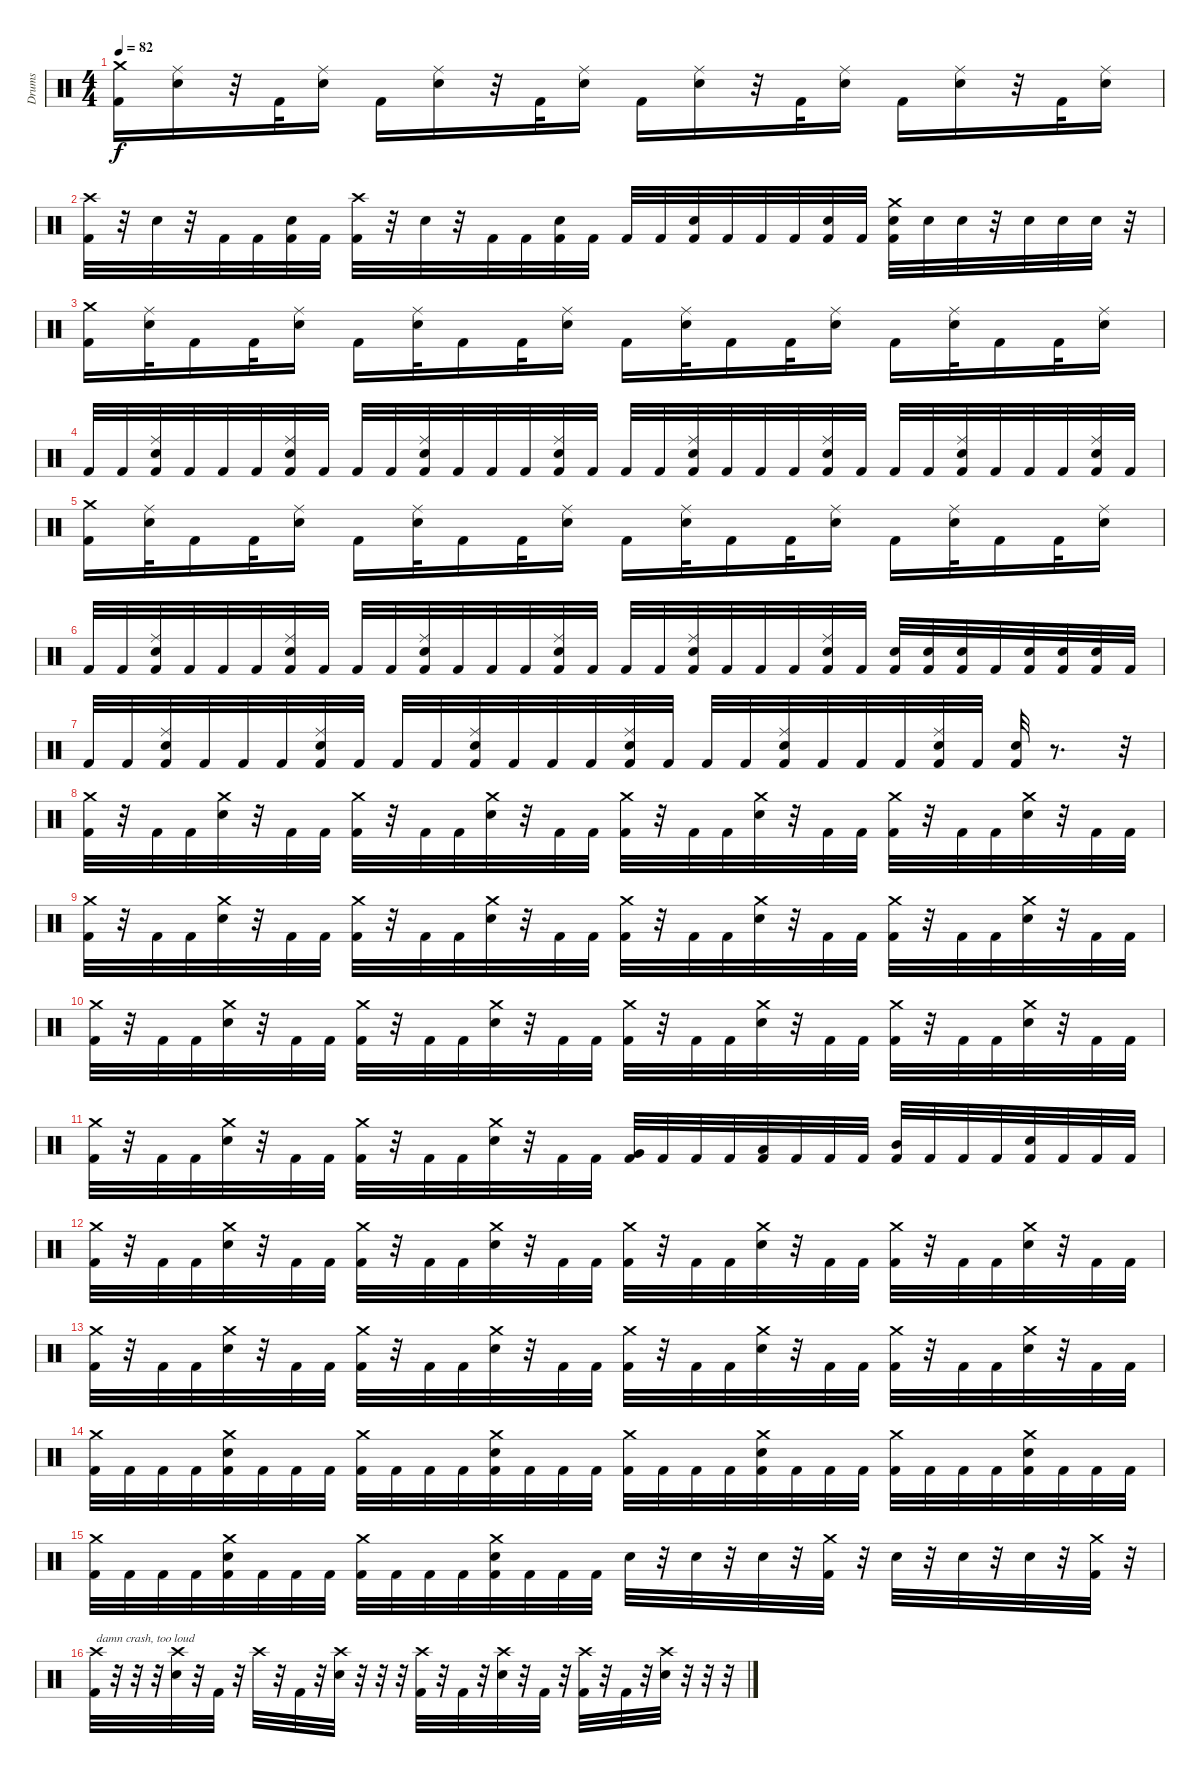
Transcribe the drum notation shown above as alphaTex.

\track ("Drums" "Drums") {instrument percussion}
\staff {score}
\articulation defaults
\ts (4 4)
\tempo 82
\clef neutral
\ks c
("Crash medium (hit)" "Kick (hit) 2").16{dy f} ("Ride (middle)" "Electric Snare (hit)").16 r.32 "Kick (hit) 2".32 ("Ride (middle)" "Electric Snare (hit)").16 "Kick (hit) 2".16 ("Ride (middle)" "Electric Snare (hit)").16 r.32 "Kick (hit) 2".32 ("Ride (middle)" "Electric Snare (hit)").16 "Kick (hit) 2".16 ("Ride (middle)" "Electric Snare (hit)").16 r.32 "Kick (hit) 2".32 ("Ride (middle)" "Electric Snare (hit)").16 "Kick (hit) 2".16 ("Ride (middle)" "Electric Snare (hit)").16 r.32 "Kick (hit) 2".32 ("Ride (middle)" "Electric Snare (hit)").16 |
("Crash high (hit)" "Kick (hit) 2").32 r.32 "Electric Snare (hit)".32 r.32 "Kick (hit) 2".32 "Kick (hit) 2".32 ("Electric Snare (hit)" "Kick (hit) 2").32 "Kick (hit) 2".32 ("Crash high (hit)" "Kick (hit) 2").32 r.32 "Electric Snare (hit)".32 r.32 "Kick (hit) 2".32 "Kick (hit) 2".32 ("Electric Snare (hit)" "Kick (hit) 2").32 "Kick (hit) 2".32 "Kick (hit) 2".32 "Kick (hit) 2".32 ("Electric Snare (hit)" "Kick (hit) 2").32 "Kick (hit) 2".32 "Kick (hit) 2".32 "Kick (hit) 2".32 ("Electric Snare (hit)" "Kick (hit) 2").32 "Kick (hit) 2".32 ("Crash medium (hit)" "Electric Snare (hit)" "Kick (hit) 2").32 "Electric Snare (hit)".32 "Electric Snare (hit)".32 r.32 "Electric Snare (hit)".32 "Electric Snare (hit)".32 "Electric Snare (hit)".32 r.32 |
("Crash medium (hit)" "Kick (hit) 2").16 ("Ride (middle)" "Electric Snare (hit)").32 "Kick (hit) 2".16 "Kick (hit) 2".32 ("Ride (middle)" "Electric Snare (hit)").16 "Kick (hit) 2".16 ("Ride (middle)" "Electric Snare (hit)").32 "Kick (hit) 2".16 "Kick (hit) 2".32 ("Ride (middle)" "Electric Snare (hit)").16 "Kick (hit) 2".16 ("Ride (middle)" "Electric Snare (hit)").32 "Kick (hit) 2".16 "Kick (hit) 2".32 ("Ride (middle)" "Electric Snare (hit)").16 "Kick (hit) 2".16 ("Ride (middle)" "Electric Snare (hit)").32 "Kick (hit) 2".16 "Kick (hit) 2".32 ("Ride (middle)" "Electric Snare (hit)").16 |
"Kick (hit) 2".32 "Kick (hit) 2".32 ("Ride (middle)" "Electric Snare (hit)" "Kick (hit) 2").32 "Kick (hit) 2".32 "Kick (hit) 2".32 "Kick (hit) 2".32 ("Ride (middle)" "Electric Snare (hit)" "Kick (hit) 2").32 "Kick (hit) 2".32 "Kick (hit) 2".32 "Kick (hit) 2".32 ("Ride (middle)" "Electric Snare (hit)" "Kick (hit) 2").32 "Kick (hit) 2".32 "Kick (hit) 2".32 "Kick (hit) 2".32 ("Ride (middle)" "Electric Snare (hit)" "Kick (hit) 2").32 "Kick (hit) 2".32 "Kick (hit) 2".32 "Kick (hit) 2".32 ("Ride (middle)" "Electric Snare (hit)" "Kick (hit) 2").32 "Kick (hit) 2".32 "Kick (hit) 2".32 "Kick (hit) 2".32 ("Ride (middle)" "Electric Snare (hit)" "Kick (hit) 2").32 "Kick (hit) 2".32 "Kick (hit) 2".32 "Kick (hit) 2".32 ("Ride (middle)" "Electric Snare (hit)" "Kick (hit) 2").32 "Kick (hit) 2".32 "Kick (hit) 2".32 "Kick (hit) 2".32 ("Ride (middle)" "Electric Snare (hit)" "Kick (hit) 2").32 "Kick (hit) 2".32 |
("Crash medium (hit)" "Kick (hit) 2").16 ("Ride (middle)" "Electric Snare (hit)").32 "Kick (hit) 2".16 "Kick (hit) 2".32 ("Ride (middle)" "Electric Snare (hit)").16 "Kick (hit) 2".16 ("Ride (middle)" "Electric Snare (hit)").32 "Kick (hit) 2".16 "Kick (hit) 2".32 ("Ride (middle)" "Electric Snare (hit)").16 "Kick (hit) 2".16 ("Ride (middle)" "Electric Snare (hit)").32 "Kick (hit) 2".16 "Kick (hit) 2".32 ("Ride (middle)" "Electric Snare (hit)").16 "Kick (hit) 2".16 ("Ride (middle)" "Electric Snare (hit)").32 "Kick (hit) 2".16 "Kick (hit) 2".32 ("Ride (middle)" "Electric Snare (hit)").16 |
"Kick (hit) 2".32 "Kick (hit) 2".32 ("Ride (middle)" "Electric Snare (hit)" "Kick (hit) 2").32 "Kick (hit) 2".32 "Kick (hit) 2".32 "Kick (hit) 2".32 ("Ride (middle)" "Electric Snare (hit)" "Kick (hit) 2").32 "Kick (hit) 2".32 "Kick (hit) 2".32 "Kick (hit) 2".32 ("Ride (middle)" "Electric Snare (hit)" "Kick (hit) 2").32 "Kick (hit) 2".32 "Kick (hit) 2".32 "Kick (hit) 2".32 ("Ride (middle)" "Electric Snare (hit)" "Kick (hit) 2").32 "Kick (hit) 2".32 "Kick (hit) 2".32 "Kick (hit) 2".32 ("Ride (middle)" "Electric Snare (hit)" "Kick (hit) 2").32 "Kick (hit) 2".32 "Kick (hit) 2".32 "Kick (hit) 2".32 ("Ride (middle)" "Electric Snare (hit)" "Kick (hit) 2").32 "Kick (hit) 2".32 ("Electric Snare (hit)" "Kick (hit) 2").32 ("Electric Snare (hit)" "Kick (hit) 2").32 ("Electric Snare (hit)" "Kick (hit) 2").32 "Kick (hit) 2".32 ("Electric Snare (hit)" "Kick (hit) 2").32 ("Electric Snare (hit)" "Kick (hit) 2").32 ("Electric Snare (hit)" "Kick (hit) 2").32 "Kick (hit) 2".32 |
"Kick (hit) 2".32 "Kick (hit) 2".32 ("Ride (middle)" "Electric Snare (hit)" "Kick (hit) 2").32 "Kick (hit) 2".32 "Kick (hit) 2".32 "Kick (hit) 2".32 ("Ride (middle)" "Electric Snare (hit)" "Kick (hit) 2").32 "Kick (hit) 2".32 "Kick (hit) 2".32 "Kick (hit) 2".32 ("Ride (middle)" "Electric Snare (hit)" "Kick (hit) 2").32 "Kick (hit) 2".32 "Kick (hit) 2".32 "Kick (hit) 2".32 ("Ride (middle)" "Electric Snare (hit)" "Kick (hit) 2").32 "Kick (hit) 2".32 "Kick (hit) 2".32 "Kick (hit) 2".32 ("Ride (middle)" "Electric Snare (hit)" "Kick (hit) 2").32 "Kick (hit) 2".32 "Kick (hit) 2".32 "Kick (hit) 2".32 ("Ride (middle)" "Electric Snare (hit)" "Kick (hit) 2").32 "Kick (hit) 2".32 ("Electric Snare (hit)" "Kick (hit) 2").32 r.8{d} r.32 |
("Crash medium (hit)" "Kick (hit) 2").32 r.32 "Kick (hit) 2".32 "Kick (hit) 2".32 ("Crash medium (hit)" "Electric Snare (hit)").32 r.32 "Kick (hit) 2".32 "Kick (hit) 2".32 ("Crash medium (hit)" "Kick (hit) 2").32 r.32 "Kick (hit) 2".32 "Kick (hit) 2".32 ("Crash medium (hit)" "Electric Snare (hit)").32 r.32 "Kick (hit) 2".32 "Kick (hit) 2".32 ("Crash medium (hit)" "Kick (hit) 2").32 r.32 "Kick (hit) 2".32 "Kick (hit) 2".32 ("Crash medium (hit)" "Electric Snare (hit)").32 r.32 "Kick (hit) 2".32 "Kick (hit) 2".32 ("Crash medium (hit)" "Kick (hit) 2").32 r.32 "Kick (hit) 2".32 "Kick (hit) 2".32 ("Crash medium (hit)" "Electric Snare (hit)").32 r.32 "Kick (hit) 2".32 "Kick (hit) 2".32 |
("Crash medium (hit)" "Kick (hit) 2").32 r.32 "Kick (hit) 2".32 "Kick (hit) 2".32 ("Crash medium (hit)" "Electric Snare (hit)").32 r.32 "Kick (hit) 2".32 "Kick (hit) 2".32 ("Crash medium (hit)" "Kick (hit) 2").32 r.32 "Kick (hit) 2".32 "Kick (hit) 2".32 ("Crash medium (hit)" "Electric Snare (hit)").32 r.32 "Kick (hit) 2".32 "Kick (hit) 2".32 ("Crash medium (hit)" "Kick (hit) 2").32 r.32 "Kick (hit) 2".32 "Kick (hit) 2".32 ("Crash medium (hit)" "Electric Snare (hit)").32 r.32 "Kick (hit) 2".32 "Kick (hit) 2".32 ("Crash medium (hit)" "Kick (hit) 2").32 r.32 "Kick (hit) 2".32 "Kick (hit) 2".32 ("Crash medium (hit)" "Electric Snare (hit)").32 r.32 "Kick (hit) 2".32 "Kick (hit) 2".32 |
("Crash medium (hit)" "Kick (hit) 2").32 r.32 "Kick (hit) 2".32 "Kick (hit) 2".32 ("Crash medium (hit)" "Electric Snare (hit)").32 r.32 "Kick (hit) 2".32 "Kick (hit) 2".32 ("Crash medium (hit)" "Kick (hit) 2").32 r.32 "Kick (hit) 2".32 "Kick (hit) 2".32 ("Crash medium (hit)" "Electric Snare (hit)").32 r.32 "Kick (hit) 2".32 "Kick (hit) 2".32 ("Crash medium (hit)" "Kick (hit) 2").32 r.32 "Kick (hit) 2".32 "Kick (hit) 2".32 ("Crash medium (hit)" "Electric Snare (hit)").32 r.32 "Kick (hit) 2".32 "Kick (hit) 2".32 ("Crash medium (hit)" "Kick (hit) 2").32 r.32 "Kick (hit) 2".32 "Kick (hit) 2".32 ("Crash medium (hit)" "Electric Snare (hit)").32 r.32 "Kick (hit) 2".32 "Kick (hit) 2".32 |
("Crash medium (hit)" "Kick (hit) 2").32 r.32 "Kick (hit) 2".32 "Kick (hit) 2".32 ("Crash medium (hit)" "Electric Snare (hit)").32 r.32 "Kick (hit) 2".32 "Kick (hit) 2".32 ("Crash medium (hit)" "Kick (hit) 2").32 r.32 "Kick (hit) 2".32 "Kick (hit) 2".32 ("Crash medium (hit)" "Electric Snare (hit)").32 r.32 "Kick (hit) 2".32 "Kick (hit) 2".32 ("Very Low Tom (hit)" "Kick (hit) 2").32 "Kick (hit) 2".32 "Kick (hit) 2".32 "Kick (hit) 2".32 ("Low Tom (hit)" "Kick (hit) 2").32 "Kick (hit) 2".32 "Kick (hit) 2".32 "Kick (hit) 2".32 ("Mid Tom (hit)" "Kick (hit) 2").32 "Kick (hit) 2".32 "Kick (hit) 2".32 "Kick (hit) 2".32 ("Electric Snare (hit)" "Kick (hit) 2").32 "Kick (hit) 2".32 "Kick (hit) 2".32 "Kick (hit) 2".32 |
("Crash medium (hit)" "Kick (hit) 2").32 r.32 "Kick (hit) 2".32 "Kick (hit) 2".32 ("Crash medium (hit)" "Electric Snare (hit)").32 r.32 "Kick (hit) 2".32 "Kick (hit) 2".32 ("Crash medium (hit)" "Kick (hit) 2").32 r.32 "Kick (hit) 2".32 "Kick (hit) 2".32 ("Crash medium (hit)" "Electric Snare (hit)").32 r.32 "Kick (hit) 2".32 "Kick (hit) 2".32 ("Crash medium (hit)" "Kick (hit) 2").32 r.32 "Kick (hit) 2".32 "Kick (hit) 2".32 ("Crash medium (hit)" "Electric Snare (hit)").32 r.32 "Kick (hit) 2".32 "Kick (hit) 2".32 ("Crash medium (hit)" "Kick (hit) 2").32 r.32 "Kick (hit) 2".32 "Kick (hit) 2".32 ("Crash medium (hit)" "Electric Snare (hit)").32 r.32 "Kick (hit) 2".32 "Kick (hit) 2".32 |
("Crash medium (hit)" "Kick (hit) 2").32 r.32 "Kick (hit) 2".32 "Kick (hit) 2".32 ("Crash medium (hit)" "Electric Snare (hit)").32 r.32 "Kick (hit) 2".32 "Kick (hit) 2".32 ("Crash medium (hit)" "Kick (hit) 2").32 r.32 "Kick (hit) 2".32 "Kick (hit) 2".32 ("Crash medium (hit)" "Electric Snare (hit)").32 r.32 "Kick (hit) 2".32 "Kick (hit) 2".32 ("Crash medium (hit)" "Kick (hit) 2").32 r.32 "Kick (hit) 2".32 "Kick (hit) 2".32 ("Crash medium (hit)" "Electric Snare (hit)").32 r.32 "Kick (hit) 2".32 "Kick (hit) 2".32 ("Crash medium (hit)" "Kick (hit) 2").32 r.32 "Kick (hit) 2".32 "Kick (hit) 2".32 ("Crash medium (hit)" "Electric Snare (hit)").32 r.32 "Kick (hit) 2".32 "Kick (hit) 2".32 |
("Crash medium (hit)" "Kick (hit) 2").32 "Kick (hit) 2".32 "Kick (hit) 2".32 "Kick (hit) 2".32 ("Crash medium (hit)" "Electric Snare (hit)" "Kick (hit) 2").32 "Kick (hit) 2".32 "Kick (hit) 2".32 "Kick (hit) 2".32 ("Crash medium (hit)" "Kick (hit) 2").32 "Kick (hit) 2".32 "Kick (hit) 2".32 "Kick (hit) 2".32 ("Crash medium (hit)" "Electric Snare (hit)" "Kick (hit) 2").32 "Kick (hit) 2".32 "Kick (hit) 2".32 "Kick (hit) 2".32 ("Crash medium (hit)" "Kick (hit) 2").32 "Kick (hit) 2".32 "Kick (hit) 2".32 "Kick (hit) 2".32 ("Crash medium (hit)" "Electric Snare (hit)" "Kick (hit) 2").32 "Kick (hit) 2".32 "Kick (hit) 2".32 "Kick (hit) 2".32 ("Crash medium (hit)" "Kick (hit) 2").32 "Kick (hit) 2".32 "Kick (hit) 2".32 "Kick (hit) 2".32 ("Crash medium (hit)" "Electric Snare (hit)" "Kick (hit) 2").32 "Kick (hit) 2".32 "Kick (hit) 2".32 "Kick (hit) 2".32 |
("Crash medium (hit)" "Kick (hit) 2").32 "Kick (hit) 2".32 "Kick (hit) 2".32 "Kick (hit) 2".32 ("Crash medium (hit)" "Electric Snare (hit)" "Kick (hit) 2").32 "Kick (hit) 2".32 "Kick (hit) 2".32 "Kick (hit) 2".32 ("Crash medium (hit)" "Kick (hit) 2").32 "Kick (hit) 2".32 "Kick (hit) 2".32 "Kick (hit) 2".32 ("Crash medium (hit)" "Electric Snare (hit)" "Kick (hit) 2").32 "Kick (hit) 2".32 "Kick (hit) 2".32 "Kick (hit) 2".32 "Electric Snare (hit)".32 r.32 "Electric Snare (hit)".32 r.32 "Electric Snare (hit)".32 r.32 ("Crash medium (hit)" "Kick (hit) 2").32 r.32 "Electric Snare (hit)".32 r.32 "Electric Snare (hit)".32 r.32 "Electric Snare (hit)".32 r.32 ("Crash medium (hit)" "Kick (hit) 2").32 r.32 |
("Crash high (hit)" "Kick (hit) 2").32{txt "damn crash, too loud"} r.32 r.32 r.32 ("Crash high (hit)" "Electric Snare (hit)").32 r.32 "Kick (hit) 2".32 r.32 "Crash high (hit)".32 r.32 "Kick (hit) 2".32 r.32 ("Crash high (hit)" "Electric Snare (hit)").32 r.32 r.32 r.32 ("Crash high (hit)" "Kick (hit) 2").32 r.32 "Kick (hit) 2".32 r.32 ("Crash high (hit)" "Electric Snare (hit)").32 r.32 "Kick (hit) 2".32 r.32 ("Crash high (hit)" "Kick (hit) 2").32 r.32 "Kick (hit) 2".32 r.32 ("Crash high (hit)" "Electric Snare (hit)").32 r.32 r.32 r.32
